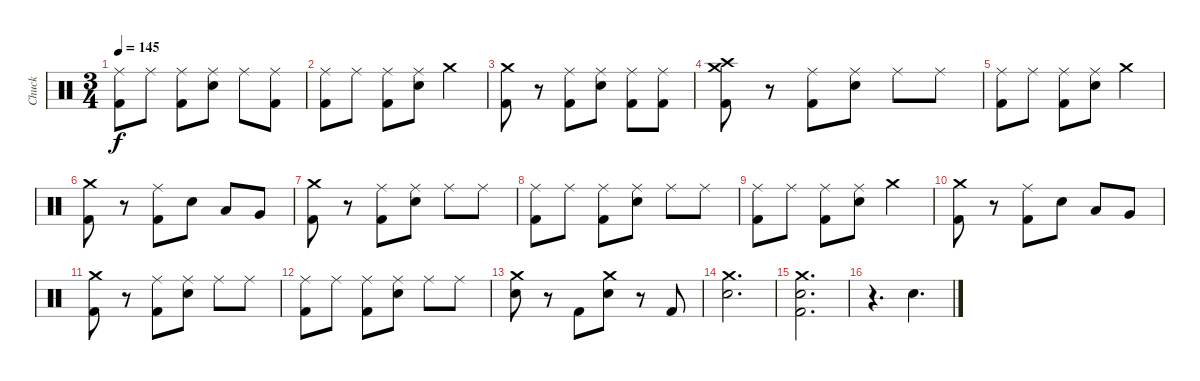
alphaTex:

\track ("Chuck" "Chuck") {instrument percussion}
\staff {score}
\articulation defaults
\ts (3 4)
\tempo 145
\clef neutral
\ks c
("Ride (middle)" "Kick (hit) 2").8{dy f} "Ride (middle)".8 ("Ride (middle)" "Kick (hit) 2").8 ("Ride (middle)" "Electric Snare (hit)").8 "Ride (middle)".8 ("Ride (middle)" "Kick (hit) 2").8 |
("Ride (middle)" "Kick (hit) 2").8 "Ride (middle)".8 ("Ride (middle)" "Kick (hit) 2").8 ("Ride (middle)" "Electric Snare (hit)").8 "Crash medium (hit)".4 |
("Crash medium (hit)" "Kick (hit) 2").8 r.8 ("Ride (middle)" "Kick (hit) 2").8 ("Ride (middle)" "Electric Snare (hit)").8 ("Ride (middle)" "Kick (hit) 2").8 ("Ride (middle)" "Kick (hit) 2").8 |
("Crash medium (hit)" "Crash high (hit)" "Kick (hit) 2").8 r.8 ("Ride (middle)" "Kick (hit) 2").8 ("Ride (middle)" "Electric Snare (hit)").8 "Ride (middle)".8 "Ride (middle)".8 |
("Ride (middle)" "Kick (hit) 2").8 "Ride (middle)".8 ("Ride (middle)" "Kick (hit) 2").8 ("Ride (middle)" "Electric Snare (hit)").8 "Crash medium (hit)".4 |
("Crash medium (hit)" "Kick (hit) 2").8 r.8 ("Ride (middle)" "Kick (hit) 2").8 "Electric Snare (hit)".8 "Low Tom (hit)".8 "Very Low Tom (hit)".8 |
("Crash medium (hit)" "Kick (hit) 2").8 r.8 ("Ride (middle)" "Kick (hit) 2").8 ("Ride (middle)" "Electric Snare (hit)").8 "Ride (middle)".8 "Ride (middle)".8 |
("Ride (middle)" "Kick (hit) 2").8 "Ride (middle)".8 ("Ride (middle)" "Kick (hit) 2").8 ("Ride (middle)" "Electric Snare (hit)").8 "Ride (middle)".8 "Ride (middle)".8 |
("Ride (middle)" "Kick (hit) 2").8 "Ride (middle)".8 ("Ride (middle)" "Kick (hit) 2").8 ("Ride (middle)" "Electric Snare (hit)").8 "Crash medium (hit)".4 |
("Crash medium (hit)" "Kick (hit) 2").8 r.8 ("Ride (middle)" "Kick (hit) 2").8 "Electric Snare (hit)".8 "Low Tom (hit)".8 "Very Low Tom (hit)".8 |
("Crash medium (hit)" "Kick (hit) 2").8 r.8 ("Ride (middle)" "Kick (hit) 2").8 ("Ride (middle)" "Electric Snare (hit)").8 "Ride (middle)".8 "Ride (middle)".8 |
("Ride (middle)" "Kick (hit) 2").8 "Ride (middle)".8 ("Ride (middle)" "Kick (hit) 2").8 ("Ride (middle)" "Electric Snare (hit)").8 "Ride (middle)".8 "Ride (middle)".8 |
("Crash medium (hit)" "Electric Snare (hit)").8 r.8 "Kick (hit) 2".8 ("Crash medium (hit)" "Electric Snare (hit)").8 r.8 "Kick (hit) 2".8 |
("Crash medium (hit)" "Electric Snare (hit)").2{d} |
("Crash medium (hit)" "Electric Snare (hit)" "Kick (hit) 2").2{d} |
r.4{d} "Electric Snare (hit)".4{d}
